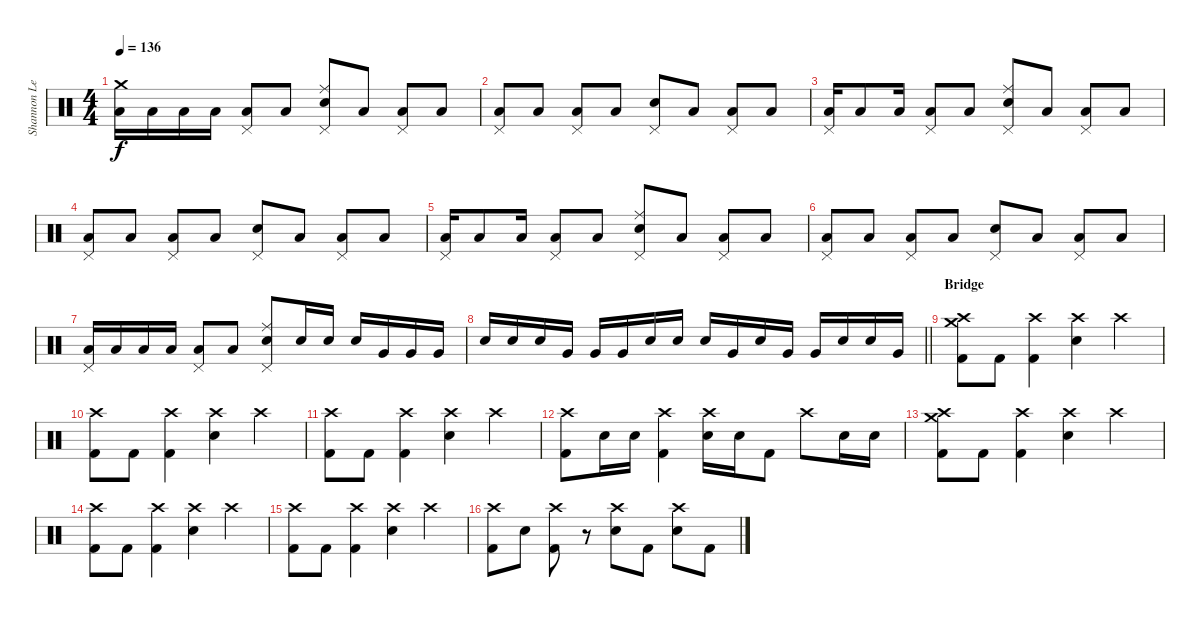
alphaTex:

\track ("Shannon Leto [Drums]" "Shannon Le") {instrument percussion}
\staff {score}
\articulation defaults
\ts (4 4)
\tempo 136
\clef neutral
\ks c
("Crash medium (hit)" "Low Tom (hit)").16{dy f} "Low Tom (hit)".16 "Low Tom (hit)".16 "Low Tom (hit)".16 ("Pedal Hi-Hat (hit)" "Low Tom (hit)").8 "Low Tom (hit)".8 ("Pedal Hi-Hat (hit)" "Ride (middle)" "Electric Snare (hit)").8 "Low Tom (hit)".8 ("Pedal Hi-Hat (hit)" "Low Tom (hit)").8 "Low Tom (hit)".8 |
("Pedal Hi-Hat (hit)" "Low Tom (hit)").8 "Low Tom (hit)".8 ("Pedal Hi-Hat (hit)" "Low Tom (hit)").8 "Low Tom (hit)".8 ("Pedal Hi-Hat (hit)" "Electric Snare (hit)").8 "Low Tom (hit)".8 ("Pedal Hi-Hat (hit)" "Low Tom (hit)").8 "Low Tom (hit)".8 |
("Pedal Hi-Hat (hit)" "Low Tom (hit)").16 "Low Tom (hit)".8 "Low Tom (hit)".16 ("Pedal Hi-Hat (hit)" "Low Tom (hit)").8 "Low Tom (hit)".8 ("Pedal Hi-Hat (hit)" "Ride (middle)" "Electric Snare (hit)").8 "Low Tom (hit)".8 ("Pedal Hi-Hat (hit)" "Low Tom (hit)").8 "Low Tom (hit)".8 |
("Pedal Hi-Hat (hit)" "Low Tom (hit)").8 "Low Tom (hit)".8 ("Pedal Hi-Hat (hit)" "Low Tom (hit)").8 "Low Tom (hit)".8 ("Pedal Hi-Hat (hit)" "Electric Snare (hit)").8 "Low Tom (hit)".8 ("Pedal Hi-Hat (hit)" "Low Tom (hit)").8 "Low Tom (hit)".8 |
("Pedal Hi-Hat (hit)" "Low Tom (hit)").16 "Low Tom (hit)".8 "Low Tom (hit)".16 ("Pedal Hi-Hat (hit)" "Low Tom (hit)").8 "Low Tom (hit)".8 ("Pedal Hi-Hat (hit)" "Ride (middle)" "Electric Snare (hit)").8 "Low Tom (hit)".8 ("Pedal Hi-Hat (hit)" "Low Tom (hit)").8 "Low Tom (hit)".8 |
("Pedal Hi-Hat (hit)" "Low Tom (hit)").8 "Low Tom (hit)".8 ("Pedal Hi-Hat (hit)" "Low Tom (hit)").8 "Low Tom (hit)".8 ("Pedal Hi-Hat (hit)" "Electric Snare (hit)").8 "Low Tom (hit)".8 ("Pedal Hi-Hat (hit)" "Low Tom (hit)").8 "Low Tom (hit)".8 |
("Pedal Hi-Hat (hit)" "Low Tom (hit)").16 "Low Tom (hit)".16 "Low Tom (hit)".16 "Low Tom (hit)".16 ("Pedal Hi-Hat (hit)" "Low Tom (hit)").8 "Low Tom (hit)".8 ("Pedal Hi-Hat (hit)" "Ride (middle)" "Electric Snare (hit)").8 "Electric Snare (hit)".16 "Electric Snare (hit)".16 "Electric Snare (hit)".16 "Very Low Tom (hit)".16 "Very Low Tom (hit)".16 "Very Low Tom (hit)".16 |
\barLineRight lightlight "Electric Snare (hit)".16 "Electric Snare (hit)".16 "Electric Snare (hit)".16 "Very Low Tom (hit)".16 "Very Low Tom (hit)".16 "Very Low Tom (hit)".16 "Electric Snare (hit)".16 "Electric Snare (hit)".16 "Electric Snare (hit)".16 "Very Low Tom (hit)".16 "Electric Snare (hit)".16 "Very Low Tom (hit)".16 "Very Low Tom (hit)".16 "Electric Snare (hit)".16 "Electric Snare (hit)".16 "Very Low Tom (hit)".16
|
\section ("" "Bridge")
("Crash high (hit)" "Crash medium (hit)" "Kick (hit) 2").8 "Kick (hit) 2".8 ("Crash high (hit)" "Kick (hit) 2").4 ("Crash high (hit)" "Electric Snare (hit)").4 "Crash high (hit)".4 |
("Crash high (hit)" "Kick (hit) 2").8 "Kick (hit) 2".8 ("Crash high (hit)" "Kick (hit) 2").4 ("Crash high (hit)" "Electric Snare (hit)").4 "Crash high (hit)".4 |
("Crash high (hit)" "Kick (hit) 2").8 "Kick (hit) 2".8 ("Crash high (hit)" "Kick (hit) 2").4 ("Crash high (hit)" "Electric Snare (hit)").4 "Crash high (hit)".4 |
("Crash high (hit)" "Kick (hit) 2").8 "Electric Snare (hit)".16 "Electric Snare (hit)".16 ("Crash high (hit)" "Kick (hit) 2").4 ("Crash high (hit)" "Electric Snare (hit)").16 "Electric Snare (hit)".16 "Kick (hit) 2".8 "Crash high (hit)".8 "Electric Snare (hit)".16 "Electric Snare (hit)".16 |
("Crash high (hit)" "Crash medium (hit)" "Kick (hit) 2").8 "Kick (hit) 2".8 ("Crash high (hit)" "Kick (hit) 2").4 ("Crash high (hit)" "Electric Snare (hit)").4 "Crash high (hit)".4 |
("Crash high (hit)" "Kick (hit) 2").8 "Kick (hit) 2".8 ("Crash high (hit)" "Kick (hit) 2").4 ("Crash high (hit)" "Electric Snare (hit)").4 "Crash high (hit)".4 |
("Crash high (hit)" "Kick (hit) 2").8 "Kick (hit) 2".8 ("Crash high (hit)" "Kick (hit) 2").4 ("Crash high (hit)" "Electric Snare (hit)").4 "Crash high (hit)".4 |
("Crash high (hit)" "Kick (hit) 2").8 "Electric Snare (hit)".8 ("Crash high (hit)" "Kick (hit) 2").8 r.8 ("Crash high (hit)" "Electric Snare (hit)").8 "Kick (hit) 2".8 ("Crash high (hit)" "Electric Snare (hit)").8 "Kick (hit) 2".8
